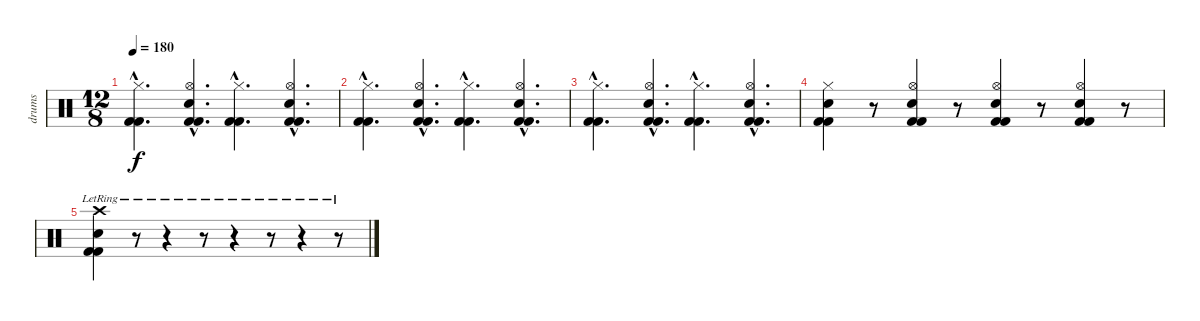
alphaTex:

\track ("drums" "drums") {instrument percussion}
\staff {score}
\articulation defaults
\ts (12 8)
\tempo 180
\clef neutral
\ks c
("Hi-Hat (closed)"{hac} "Kick (hit) 2"{hac} "Kick (hit) 2"{hac}).4{d dy f} ("Hi-Hat (open)"{hac} "Snare (hit) 2"{hac} "Kick (hit) 2"{hac} "Kick (hit) 2"{hac}).4{d} ("Hi-Hat (closed)"{hac} "Kick (hit) 2"{hac} "Kick (hit) 2"{hac}).4{d} ("Hi-Hat (open)"{hac} "Snare (hit) 2"{hac} "Kick (hit) 2"{hac} "Kick (hit) 2"{hac}).4{d} |
("Hi-Hat (closed)"{hac} "Kick (hit) 2"{hac} "Kick (hit) 2"{hac}).4{d} ("Hi-Hat (open)"{hac} "Snare (hit) 2"{hac} "Kick (hit) 2"{hac} "Kick (hit) 2"{hac}).4{d} ("Hi-Hat (closed)"{hac} "Kick (hit) 2"{hac} "Kick (hit) 2"{hac}).4{d} ("Hi-Hat (open)"{hac} "Snare (hit) 2"{hac} "Kick (hit) 2"{hac} "Kick (hit) 2"{hac}).4{d} |
("Hi-Hat (closed)"{hac} "Kick (hit) 2"{hac} "Kick (hit) 2"{hac}).4{d} ("Hi-Hat (open)"{hac} "Snare (hit) 2"{hac} "Kick (hit) 2"{hac} "Kick (hit) 2"{hac}).4{d} ("Hi-Hat (closed)"{hac} "Kick (hit) 2"{hac} "Kick (hit) 2"{hac}).4{d} ("Hi-Hat (open)"{hac} "Snare (hit) 2"{hac} "Kick (hit) 2"{hac} "Kick (hit) 2"{hac}).4{d} |
("Hi-Hat (closed)" "Snare (hit) 2" "Kick (hit) 2" "Kick (hit) 2").4 r.8 ("Hi-Hat (open)" "Snare (hit) 2" "Kick (hit) 2" "Kick (hit) 2").4 r.8 ("Hi-Hat (open)" "Snare (hit) 2" "Kick (hit) 2" "Kick (hit) 2").4 r.8 ("Hi-Hat (open)" "Snare (hit) 2" "Kick (hit) 2" "Kick (hit) 2").4 r.8 |
("Crash high (hit)"{lr} "Snare (hit) 2" "Kick (hit) 2" "Kick (hit) 2").4 r.8 r.4 r.8 r.4 r.8 r.4 r.8
